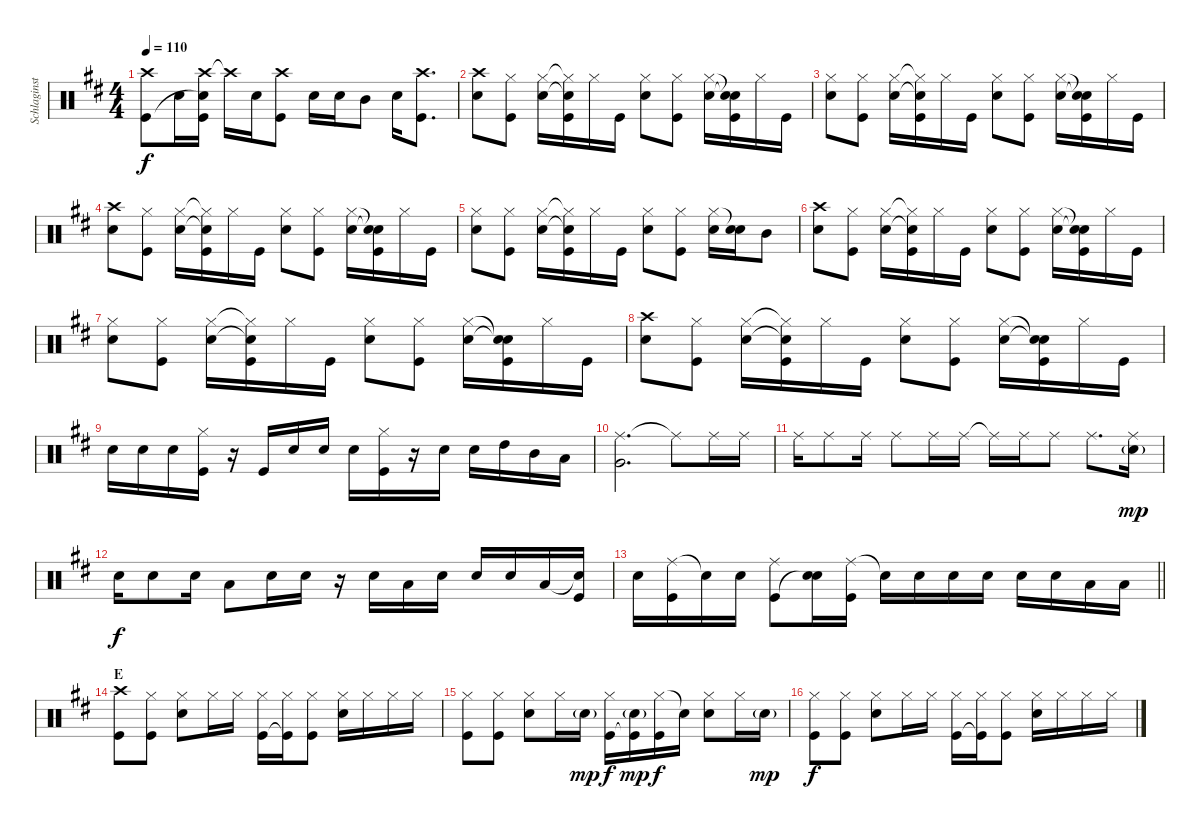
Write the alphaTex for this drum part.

\track ("Schlaginstrumente - Auswahl" "Schlaginst") {instrument percussion}
\staff {score}
\articulation defaults
\ts (4 4)
\tempo 110
\clef neutral
\ks d
("Crash high (hit)" "Kick (hit)").8{dy f} "Snare (hit) 2".16 ("Crash high (hit)" "Snare (hit)"{t} "Kick (hit)").16 "Crash high (hit)"{t}.16 "Snare (hit) 2".16 ("Crash high (hit)" "Kick (hit)").8 "Snare (hit) 2".16 "Snare (hit) 2".16 "Mid Tom (hit)".8 "Snare (hit) 2".16 ("Crash high (hit)" "Kick (hit)").8{d} |
("Crash high (hit)" "Snare (hit) 2").8 ("Hi-Hat (closed)" "Kick (hit)").8 ("Hi-Hat (closed)" "Snare (hit) 2").16 ("Hi-Hat (closed)"{t} "Snare (hit)"{t} "Kick (hit)").16 "Hi-Hat (closed)".16 "Kick (hit)".16 ("Hi-Hat (closed)" "Snare (hit) 2").8 ("Hi-Hat (closed)" "Kick (hit)").8 ("Hi-Hat (closed)" "Snare (hit) 2").16 ("Snare (hit)"{t} "Snare (hit)"{t} "Kick (hit)").16 "Hi-Hat (closed)".16 "Kick (hit)".16 |
("Hi-Hat (closed)" "Snare (hit) 2").8 ("Hi-Hat (closed)" "Kick (hit)").8 ("Hi-Hat (closed)" "Snare (hit) 2").16 ("Hi-Hat (closed)"{t} "Snare (hit)"{t} "Kick (hit)").16 "Hi-Hat (closed)".16 "Kick (hit)".16 ("Hi-Hat (closed)" "Snare (hit) 2").8 ("Hi-Hat (closed)" "Kick (hit)").8 ("Hi-Hat (closed)" "Snare (hit) 2").16 ("Snare (hit)"{t} "Snare (hit)"{t} "Kick (hit)").16 "Hi-Hat (closed)".16 "Kick (hit)".16 |
("Crash high (hit)" "Snare (hit) 2").8 ("Hi-Hat (closed)" "Kick (hit)").8 ("Hi-Hat (closed)" "Snare (hit) 2").16 ("Hi-Hat (closed)"{t} "Snare (hit)"{t} "Kick (hit)").16 "Hi-Hat (closed)".16 "Kick (hit)".16 ("Hi-Hat (closed)" "Snare (hit) 2").8 ("Hi-Hat (closed)" "Kick (hit)").8 ("Hi-Hat (closed)" "Snare (hit) 2").16 ("Snare (hit)"{t} "Snare (hit)"{t} "Kick (hit)").16 "Hi-Hat (closed)".16 "Kick (hit)".16 |
("Hi-Hat (closed)" "Snare (hit) 2").8 ("Hi-Hat (closed)" "Kick (hit)").8 ("Hi-Hat (closed)" "Snare (hit) 2").16 ("Hi-Hat (closed)"{t} "Snare (hit)"{t} "Kick (hit)").16 "Hi-Hat (closed)".16 "Kick (hit)".16 ("Hi-Hat (closed)" "Snare (hit) 2").8 ("Hi-Hat (closed)" "Kick (hit)").8 ("Hi-Hat (closed)" "Snare (hit) 2").16 ("Snare (hit)"{t} "Snare (hit) 2").16 "Mid Tom (hit)".8 |
("Crash high (hit)" "Snare (hit) 2").8 ("Hi-Hat (closed)" "Kick (hit)").8 ("Hi-Hat (closed)" "Snare (hit) 2").16 ("Hi-Hat (closed)"{t} "Snare (hit)"{t} "Kick (hit)").16 "Hi-Hat (closed)".16 "Kick (hit)".16 ("Hi-Hat (closed)" "Snare (hit) 2").8 ("Hi-Hat (closed)" "Kick (hit)").8 ("Hi-Hat (closed)" "Snare (hit) 2").16 ("Snare (hit)"{t} "Snare (hit)"{t} "Kick (hit)").16 "Hi-Hat (closed)".16 "Kick (hit)".16 |
("Hi-Hat (closed)" "Snare (hit) 2").8 ("Hi-Hat (closed)" "Kick (hit)").8 ("Hi-Hat (closed)" "Snare (hit) 2").16 ("Hi-Hat (closed)"{t} "Snare (hit)"{t} "Kick (hit)").16 "Hi-Hat (closed)".16 "Kick (hit)".16 ("Hi-Hat (closed)" "Snare (hit) 2").8 ("Hi-Hat (closed)" "Kick (hit)").8 ("Hi-Hat (closed)" "Snare (hit) 2").16 ("Snare (hit)"{t} "Snare (hit)"{t} "Kick (hit)").16 "Hi-Hat (closed)".16 "Kick (hit)".16 |
("Crash high (hit)" "Snare (hit) 2").8 ("Hi-Hat (closed)" "Kick (hit)").8 ("Hi-Hat (closed)" "Snare (hit) 2").16 ("Hi-Hat (closed)"{t} "Snare (hit)"{t} "Kick (hit)").16 "Hi-Hat (closed)".16 "Kick (hit)".16 ("Hi-Hat (closed)" "Snare (hit) 2").8 ("Hi-Hat (closed)" "Kick (hit)").8 ("Hi-Hat (closed)" "Snare (hit) 2").16 ("Snare (hit)"{t} "Snare (hit)"{t} "Kick (hit)").16 "Hi-Hat (closed)".16 "Kick (hit)".16 |
"Snare (hit) 2".16 "Snare (hit) 2".16 "Snare (hit) 2".16 ("Hi-Hat (closed)" "Kick (hit)").16 r.16 "Kick (hit)".16 "Snare (hit) 2".16 "Snare (hit) 2".16 "Snare (hit) 2".16 ("Hi-Hat (closed)" "Kick (hit)").16 r.16 "Snare (hit) 2".16 "Snare (hit) 2".16 "High Tom (hit)".16 "Mid Tom (hit)".16 "Low Tom (hit)".16 |
("Ride (middle)" "Very Low Tom (hit)").2{d} "Ride (middle)"{t}.8 "Ride (middle)".16 "Ride (middle)".16 |
"Ride (middle)".16 "Ride (middle)".8 "Ride (middle)".16 "Ride (middle)".8 "Ride (middle)".16 "Ride (middle)".16 "Ride (middle)"{t}.16 "Ride (middle)".16 "Ride (middle)".8 "Ride (middle)".8{d} ("Ride (middle)" "Snare (hit) 2"{g}).16{dy mp} |
"Snare (hit) 2".16{dy f} "Snare (hit) 2".8 "Snare (hit) 2".16 "Low Tom (hit)".8 "Snare (hit) 2".16 "Snare (hit) 2".16 r.16 "Snare (hit) 2".16 "Low Tom (hit)".16 "Snare (hit) 2".16 "Snare (hit) 2".16 "Snare (hit) 2".16 "Low Tom (hit)".16 ("Snare (hit)"{t} "Kick (hit)").16 |
\barLineRight lightlight "Snare (hit) 2".16
("Ride (middle)" "Kick (hit)").16 "Snare (hit)"{t}.16 "Snare (hit) 2".16 ("Ride (middle)" "Kick (hit)").8 ("Snare (hit) 2" "Snare (hit)"{t}).16 ("Ride (middle)" "Kick (hit)").16 "Snare (hit)"{t}.16 "Snare (hit) 2".16 "Snare (hit) 2".16 "Snare (hit) 2".16 "Snare (hit) 2".16 "Snare (hit) 2".16 "Low Tom (hit)".16 "Low Tom (hit)".16 |
\section ("" "E")
("Crash high (hit)" "Kick (hit)").8 ("Hi-Hat (closed)" "Kick (hit)").8 ("Hi-Hat (closed)" "Snare (hit) 2").8 "Hi-Hat (closed)".16 "Hi-Hat (closed)".16 ("Hi-Hat (closed)" "Kick (hit)").16 ("Hi-Hat (closed)" "Kick (hit)"{t}).16 ("Hi-Hat (closed)" "Kick (hit)").8 ("Hi-Hat (closed)" "Snare (hit) 2").16 "Hi-Hat (closed)".16 "Hi-Hat (closed)".16 "Hi-Hat (closed)".16 |
("Hi-Hat (closed)" "Kick (hit)").8 ("Hi-Hat (closed)" "Kick (hit)").8 ("Hi-Hat (closed)" "Snare (hit) 2").8 "Hi-Hat (closed)".16 "Snare (hit) 2"{g}.16{dy mp} ("Hi-Hat (closed)" "Kick (hit)").16{dy f} ("Snare (hit) 2"{g} "Kick (hit)"{t}).16{dy mp} ("Hi-Hat (closed)" "Kick (hit)").16{dy f} "Snare (hit)"{t}.16 ("Hi-Hat (closed)" "Snare (hit) 2").8 "Hi-Hat (closed)".16 "Snare (hit) 2"{g}.16{dy mp} |
("Hi-Hat (closed)" "Kick (hit)").8{dy f} ("Hi-Hat (closed)" "Kick (hit)").8 ("Hi-Hat (closed)" "Snare (hit) 2").8 "Hi-Hat (closed)".16 "Hi-Hat (closed)".16 ("Hi-Hat (closed)" "Kick (hit)").16 ("Hi-Hat (closed)" "Kick (hit)"{t}).16 ("Hi-Hat (closed)" "Kick (hit)").8 ("Hi-Hat (closed)" "Snare (hit) 2").16 "Hi-Hat (closed)".16 "Hi-Hat (closed)".16 "Hi-Hat (closed)".16
